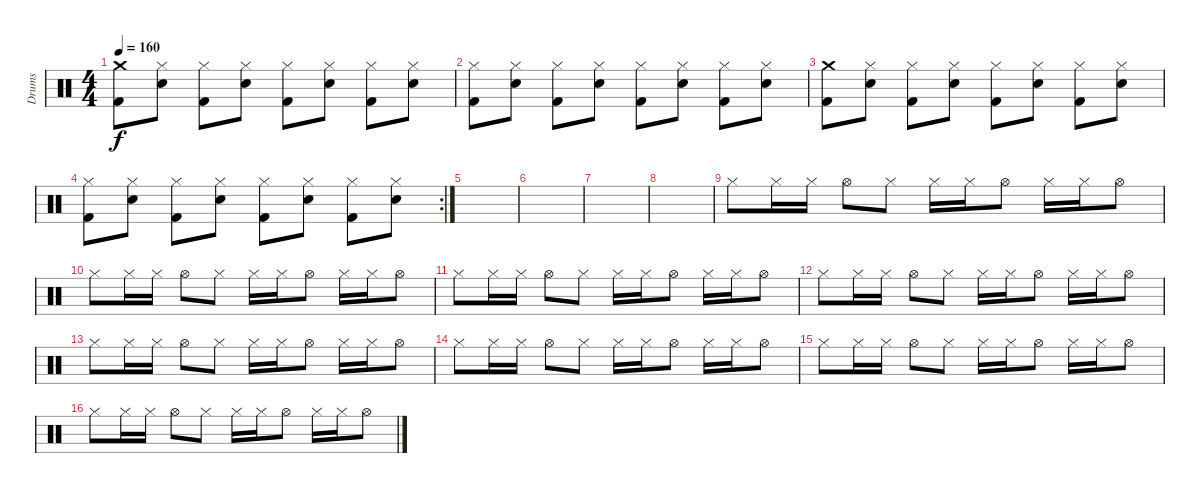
\track ("Drums" "Drums") {instrument percussion}
\staff {score}
\articulation defaults
\ts (4 4)
\tempo 160
\clef neutral
\ks c
("Crash medium (hit)" "Kick (hit) 2").8{dy f} ("Hi-Hat (closed)" "Snare (hit) 2").8 ("Hi-Hat (closed)" "Kick (hit) 2").8 ("Hi-Hat (closed)" "Snare (hit) 2").8 ("Hi-Hat (closed)" "Kick (hit) 2").8 ("Hi-Hat (closed)" "Snare (hit) 2").8 ("Hi-Hat (closed)" "Kick (hit) 2").8 ("Hi-Hat (closed)" "Snare (hit) 2").8 |
("Hi-Hat (closed)" "Kick (hit) 2").8 ("Hi-Hat (closed)" "Snare (hit) 2").8 ("Hi-Hat (closed)" "Kick (hit) 2").8 ("Hi-Hat (closed)" "Snare (hit) 2").8 ("Hi-Hat (closed)" "Kick (hit) 2").8 ("Hi-Hat (closed)" "Snare (hit) 2").8 ("Hi-Hat (closed)" "Kick (hit) 2").8 ("Hi-Hat (closed)" "Snare (hit) 2").8 |
("Crash medium (hit)" "Kick (hit) 2").8 ("Hi-Hat (closed)" "Snare (hit) 2").8 ("Hi-Hat (closed)" "Kick (hit) 2").8 ("Hi-Hat (closed)" "Snare (hit) 2").8 ("Hi-Hat (closed)" "Kick (hit) 2").8 ("Hi-Hat (closed)" "Snare (hit) 2").8 ("Hi-Hat (closed)" "Kick (hit) 2").8 ("Hi-Hat (closed)" "Snare (hit) 2").8 |
\rc 2
("Hi-Hat (closed)" "Kick (hit) 2").8 ("Hi-Hat (closed)" "Snare (hit) 2").8 ("Hi-Hat (closed)" "Kick (hit) 2").8 ("Hi-Hat (closed)" "Snare (hit) 2").8 ("Hi-Hat (closed)" "Kick (hit) 2").8 ("Hi-Hat (closed)" "Snare (hit) 2").8 ("Hi-Hat (closed)" "Kick (hit) 2").8 ("Hi-Hat (closed)" "Snare (hit) 2").8 |
|
|
|
|
"Hi-Hat (closed)".8 "Hi-Hat (closed)".16 "Hi-Hat (closed)".16 "Hi-Hat (open)".8 "Hi-Hat (closed)".8 "Hi-Hat (closed)".16 "Hi-Hat (closed)".16 "Hi-Hat (open)".8 "Hi-Hat (closed)".16 "Hi-Hat (closed)".16 "Hi-Hat (open)".8 |
"Hi-Hat (closed)".8 "Hi-Hat (closed)".16 "Hi-Hat (closed)".16 "Hi-Hat (open)".8 "Hi-Hat (closed)".8 "Hi-Hat (closed)".16 "Hi-Hat (closed)".16 "Hi-Hat (open)".8 "Hi-Hat (closed)".16 "Hi-Hat (closed)".16 "Hi-Hat (open)".8 |
"Hi-Hat (closed)".8 "Hi-Hat (closed)".16 "Hi-Hat (closed)".16 "Hi-Hat (open)".8 "Hi-Hat (closed)".8 "Hi-Hat (closed)".16 "Hi-Hat (closed)".16 "Hi-Hat (open)".8 "Hi-Hat (closed)".16 "Hi-Hat (closed)".16 "Hi-Hat (open)".8 |
"Hi-Hat (closed)".8 "Hi-Hat (closed)".16 "Hi-Hat (closed)".16 "Hi-Hat (open)".8 "Hi-Hat (closed)".8 "Hi-Hat (closed)".16 "Hi-Hat (closed)".16 "Hi-Hat (open)".8 "Hi-Hat (closed)".16 "Hi-Hat (closed)".16 "Hi-Hat (open)".8 |
"Hi-Hat (closed)".8 "Hi-Hat (closed)".16 "Hi-Hat (closed)".16 "Hi-Hat (open)".8 "Hi-Hat (closed)".8 "Hi-Hat (closed)".16 "Hi-Hat (closed)".16 "Hi-Hat (open)".8 "Hi-Hat (closed)".16 "Hi-Hat (closed)".16 "Hi-Hat (open)".8 |
"Hi-Hat (closed)".8 "Hi-Hat (closed)".16 "Hi-Hat (closed)".16 "Hi-Hat (open)".8 "Hi-Hat (closed)".8 "Hi-Hat (closed)".16 "Hi-Hat (closed)".16 "Hi-Hat (open)".8 "Hi-Hat (closed)".16 "Hi-Hat (closed)".16 "Hi-Hat (open)".8 |
"Hi-Hat (closed)".8 "Hi-Hat (closed)".16 "Hi-Hat (closed)".16 "Hi-Hat (open)".8 "Hi-Hat (closed)".8 "Hi-Hat (closed)".16 "Hi-Hat (closed)".16 "Hi-Hat (open)".8 "Hi-Hat (closed)".16 "Hi-Hat (closed)".16 "Hi-Hat (open)".8 |
"Hi-Hat (closed)".8 "Hi-Hat (closed)".16 "Hi-Hat (closed)".16 "Hi-Hat (open)".8 "Hi-Hat (closed)".8 "Hi-Hat (closed)".16 "Hi-Hat (closed)".16 "Hi-Hat (open)".8 "Hi-Hat (closed)".16 "Hi-Hat (closed)".16 "Hi-Hat (open)".8
